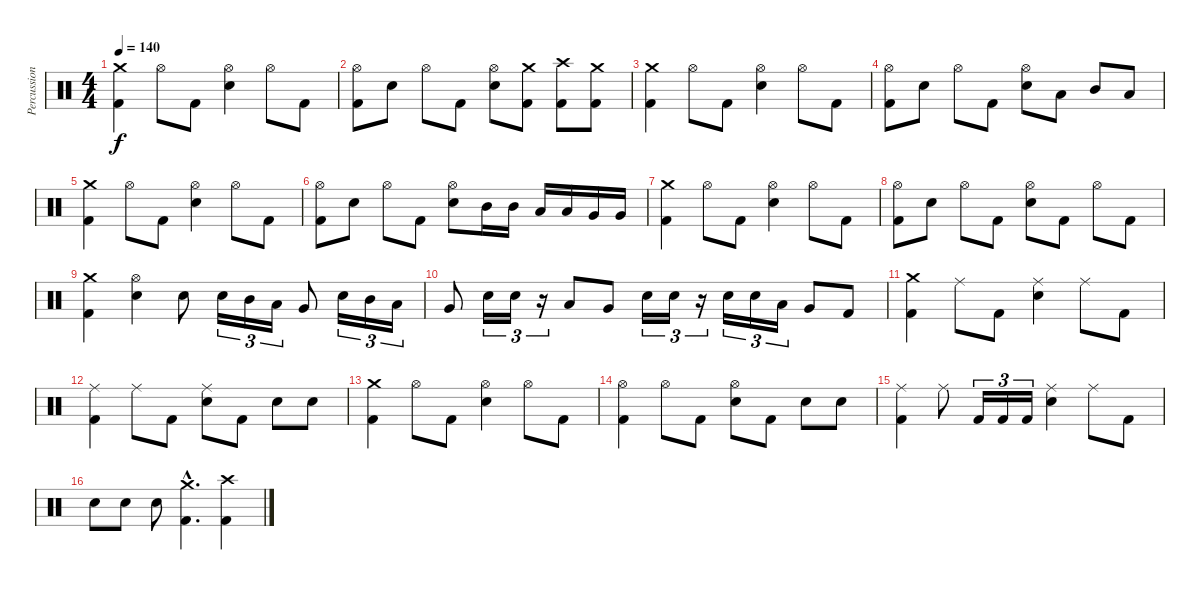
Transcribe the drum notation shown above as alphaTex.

\track ("Percussion" "Percussion") {instrument percussion}
\staff {score}
\articulation defaults
\ts (4 4)
\tempo 140
\clef neutral
\ks c
("Crash medium (hit)" "Kick (hit) 2").4{dy f} "Hi-Hat (open)".8 "Kick (hit) 2".8 ("Hi-Hat (open)" "Snare (hit) 2").4 "Hi-Hat (open)".8 "Kick (hit) 2".8 |
("Hi-Hat (open)" "Kick (hit) 2").8 "Snare (hit) 2".8 "Hi-Hat (open)".8 "Kick (hit) 2".8 ("Hi-Hat (open)" "Snare (hit) 2").8 ("Crash medium (hit)" "Kick (hit) 2").8 ("Crash high (hit)" "Kick (hit) 2").8 ("Crash medium (hit)" "Kick (hit) 2").8 |
("Crash medium (hit)" "Kick (hit) 2").4 "Hi-Hat (open)".8 "Kick (hit) 2".8 ("Hi-Hat (open)" "Snare (hit) 2").4 "Hi-Hat (open)".8 "Kick (hit) 2".8 |
("Hi-Hat (open)" "Kick (hit) 2").8 "Snare (hit) 2".8 "Hi-Hat (open)".8 "Kick (hit) 2".8 ("Hi-Hat (open)" "Snare (hit) 2").8 "Low Tom (hit)".8 "Mid Tom (hit)".8 "Low Tom (hit)".8 |
("Crash medium (hit)" "Kick (hit) 2").4 "Hi-Hat (open)".8 "Kick (hit) 2".8 ("Hi-Hat (open)" "Snare (hit) 2").4 "Hi-Hat (open)".8 "Kick (hit) 2".8 |
("Hi-Hat (open)" "Kick (hit) 2").8 "Snare (hit) 2".8 "Hi-Hat (open)".8 "Kick (hit) 2".8 ("Hi-Hat (open)" "Snare (hit) 2").8 "Mid Tom (hit)".16 "Mid Tom (hit)".16 "Low Tom (hit)".16 "Low Tom (hit)".16 "Very Low Tom (hit)".16 "Very Low Tom (hit)".16 |
("Crash medium (hit)" "Kick (hit) 2").4 "Hi-Hat (open)".8 "Kick (hit) 2".8 ("Hi-Hat (open)" "Snare (hit) 2").4 "Hi-Hat (open)".8 "Kick (hit) 2".8 |
("Hi-Hat (open)" "Kick (hit) 2").8 "Snare (hit) 2".8 "Hi-Hat (open)".8 "Kick (hit) 2".8 ("Hi-Hat (open)" "Snare (hit) 2").8 "Kick (hit) 2".8 "Hi-Hat (open)".8 "Kick (hit) 2".8 |
("Crash medium (hit)" "Kick (hit) 2").4 ("Hi-Hat (open)" "Snare (hit) 2").4 "Snare (hit) 2".8 "Snare (hit) 2".16{tu (3 2)} "Mid Tom (hit)".16{tu (3 2)} "Low Tom (hit)".16{tu (3 2)} "Very Low Tom (hit)".8 "Snare (hit) 2".16{tu (3 2)} "Mid Tom (hit)".16{tu (3 2)} "Low Tom (hit)".16{tu (3 2)} |
"Very Low Tom (hit)".8 "Snare (hit) 2".16{tu (3 2)} "Snare (hit) 2".16{tu (3 2)} r.16{tu (3 2)} "Low Tom (hit)".8 "Very Low Tom (hit)".8 "Snare (hit) 2".16{tu (3 2)} "Snare (hit) 2".16{tu (3 2)} r.16{tu (3 2)} "Snare (hit) 2".16{tu (3 2)} "Snare (hit) 2".16{tu (3 2)} "Low Tom (hit)".16{tu (3 2)} "Very Low Tom (hit)".8 "Kick (hit) 2".8 |
("Crash medium (hit)" "Kick (hit) 2").4 "Ride (middle)".8 "Kick (hit) 2".8 ("Ride (middle)" "Snare (hit) 2").4 "Ride (middle)".8 "Kick (hit) 2".8 |
("Ride (middle)" "Kick (hit) 2").4 "Ride (middle)".8 "Kick (hit) 2".8 ("Ride (middle)" "Snare (hit) 2").8 "Kick (hit) 2".8 "Snare (hit) 2".8 "Snare (hit) 2".8 |
("Crash medium (hit)" "Kick (hit) 2").4 "Hi-Hat (open)".8 "Kick (hit) 2".8 ("Hi-Hat (open)" "Snare (hit) 2").4 "Hi-Hat (open)".8 "Kick (hit) 2".8 |
("Hi-Hat (open)" "Kick (hit) 2").4 "Hi-Hat (open)".8 "Kick (hit) 2".8 ("Hi-Hat (open)" "Snare (hit) 2").8 "Kick (hit) 2".8 "Snare (hit) 2".8 "Snare (hit) 2".8 |
("Ride (middle)" "Kick (hit) 2").4 "Ride (middle)".8 "Kick (hit) 2".16{tu (3 2)} "Kick (hit) 2".16{tu (3 2)} "Kick (hit) 2".16{tu (3 2)} ("Ride (middle)" "Snare (hit) 2").4 "Ride (middle)".8 "Kick (hit) 2".8 |
"Snare (hit) 2".8 "Snare (hit) 2".8 "Snare (hit) 2".8 ("Crash medium (hit)"{hac} "Kick (hit) 2"{hac}).4{d} ("Crash high (hit)" "Kick (hit) 2").4
